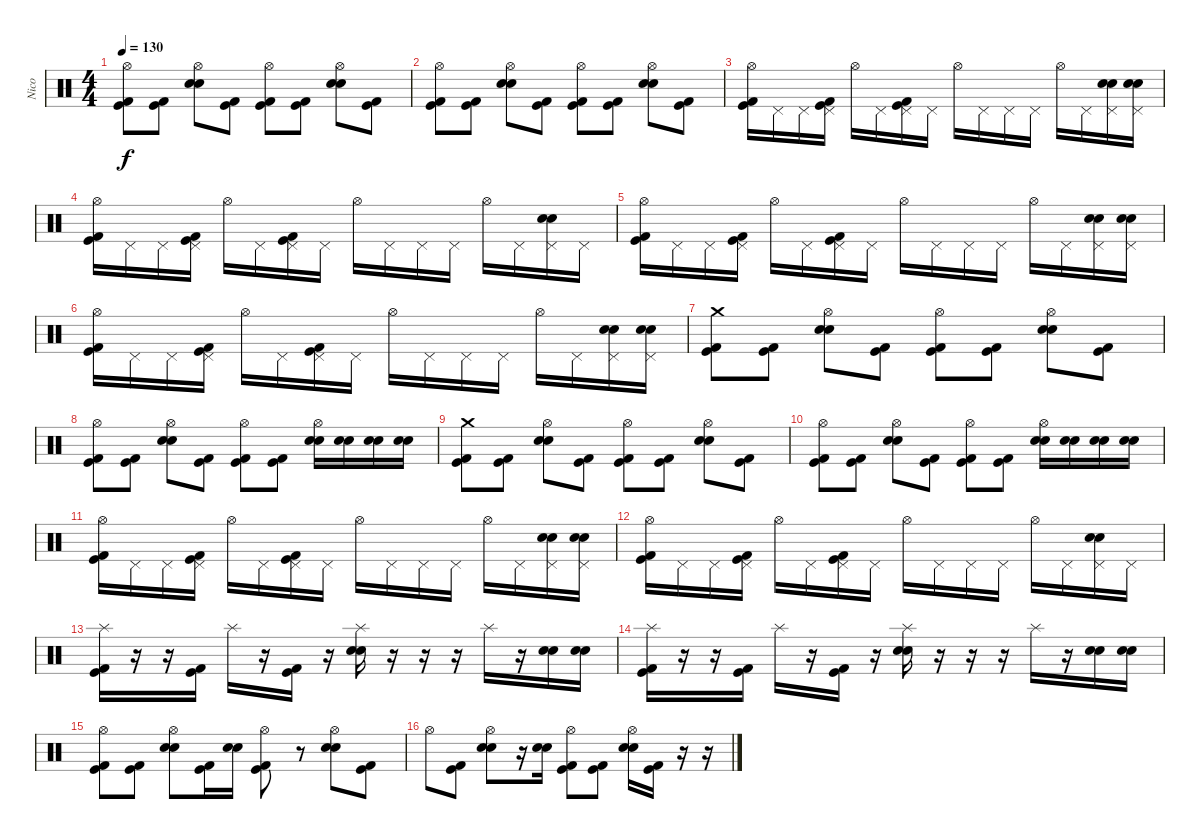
\track ("Nico" "Nico") {instrument percussion}
\staff {score}
\articulation defaults
\ts (4 4)
\tempo 130
\clef neutral
\ks c
("Hi-Hat (open)" "Kick (hit) 2" "Kick (hit)").8{dy f} ("Kick (hit) 2" "Kick (hit)").8 ("Hi-Hat (open)" "Electric Snare (hit)" "Electric Snare (hit)").8 ("Kick (hit)" "Kick (hit) 2").8 ("Hi-Hat (open)" "Kick (hit) 2" "Kick (hit)").8 ("Kick (hit) 2" "Kick (hit)").8 ("Hi-Hat (open)" "Electric Snare (hit)" "Electric Snare (hit)").8 ("Kick (hit)" "Kick (hit) 2").8 |
("Hi-Hat (open)" "Kick (hit) 2" "Kick (hit)").8 ("Kick (hit) 2" "Kick (hit)").8 ("Hi-Hat (open)" "Electric Snare (hit)" "Electric Snare (hit)").8 ("Kick (hit)" "Kick (hit) 2").8 ("Hi-Hat (open)" "Kick (hit) 2" "Kick (hit)").8 ("Kick (hit) 2" "Kick (hit)").8 ("Hi-Hat (open)" "Electric Snare (hit)" "Electric Snare (hit)").8 ("Kick (hit)" "Kick (hit) 2").8 |
("Hi-Hat (open)" "Kick (hit) 2" "Kick (hit)").16 "Pedal Hi-Hat (hit)".16 "Pedal Hi-Hat (hit)".16 ("Pedal Hi-Hat (hit)" "Kick (hit) 2" "Kick (hit)").16 "Hi-Hat (open)".16 "Pedal Hi-Hat (hit)".16 ("Pedal Hi-Hat (hit)" "Kick (hit) 2" "Kick (hit)").16 "Pedal Hi-Hat (hit)".16 "Hi-Hat (open)".16 "Pedal Hi-Hat (hit)".16 "Pedal Hi-Hat (hit)".16 "Pedal Hi-Hat (hit)".16 "Hi-Hat (open)".16 "Pedal Hi-Hat (hit)".16 ("Pedal Hi-Hat (hit)" "Electric Snare (hit)" "Electric Snare (hit)").16 ("Pedal Hi-Hat (hit)" "Electric Snare (hit)" "Electric Snare (hit)").16 |
("Hi-Hat (open)" "Kick (hit) 2" "Kick (hit)").16 "Pedal Hi-Hat (hit)".16 "Pedal Hi-Hat (hit)".16 ("Pedal Hi-Hat (hit)" "Kick (hit) 2" "Kick (hit)").16 "Hi-Hat (open)".16 "Pedal Hi-Hat (hit)".16 ("Pedal Hi-Hat (hit)" "Kick (hit) 2" "Kick (hit)").16 "Pedal Hi-Hat (hit)".16 "Hi-Hat (open)".16 "Pedal Hi-Hat (hit)".16 "Pedal Hi-Hat (hit)".16 "Pedal Hi-Hat (hit)".16 "Hi-Hat (open)".16 "Pedal Hi-Hat (hit)".16 ("Pedal Hi-Hat (hit)" "Electric Snare (hit)" "Electric Snare (hit)").16 "Pedal Hi-Hat (hit)".16 |
("Hi-Hat (open)" "Kick (hit) 2" "Kick (hit)").16 "Pedal Hi-Hat (hit)".16 "Pedal Hi-Hat (hit)".16 ("Pedal Hi-Hat (hit)" "Kick (hit) 2" "Kick (hit)").16 "Hi-Hat (open)".16 "Pedal Hi-Hat (hit)".16 ("Pedal Hi-Hat (hit)" "Kick (hit) 2" "Kick (hit)").16 "Pedal Hi-Hat (hit)".16 "Hi-Hat (open)".16 "Pedal Hi-Hat (hit)".16 "Pedal Hi-Hat (hit)".16 "Pedal Hi-Hat (hit)".16 "Hi-Hat (open)".16 "Pedal Hi-Hat (hit)".16 ("Pedal Hi-Hat (hit)" "Electric Snare (hit)" "Electric Snare (hit)").16 ("Pedal Hi-Hat (hit)" "Electric Snare (hit)" "Electric Snare (hit)").16 |
("Hi-Hat (open)" "Kick (hit) 2" "Kick (hit)").16 "Pedal Hi-Hat (hit)".16 "Pedal Hi-Hat (hit)".16 ("Pedal Hi-Hat (hit)" "Kick (hit) 2" "Kick (hit)").16 "Hi-Hat (open)".16 "Pedal Hi-Hat (hit)".16 ("Pedal Hi-Hat (hit)" "Kick (hit) 2" "Kick (hit)").16 "Pedal Hi-Hat (hit)".16 "Hi-Hat (open)".16 "Pedal Hi-Hat (hit)".16 "Pedal Hi-Hat (hit)".16 "Pedal Hi-Hat (hit)".16 "Hi-Hat (open)".16 "Pedal Hi-Hat (hit)".16 ("Pedal Hi-Hat (hit)" "Electric Snare (hit)" "Electric Snare (hit)").16 ("Pedal Hi-Hat (hit)" "Electric Snare (hit)" "Electric Snare (hit)").16 |
("Crash medium (hit)" "Kick (hit) 2" "Kick (hit)").8 ("Kick (hit) 2" "Kick (hit)").8 ("Hi-Hat (open)" "Electric Snare (hit)" "Electric Snare (hit)").8 ("Kick (hit)" "Kick (hit) 2").8 ("Hi-Hat (open)" "Kick (hit) 2" "Kick (hit)").8 ("Kick (hit) 2" "Kick (hit)").8 ("Hi-Hat (open)" "Electric Snare (hit)" "Electric Snare (hit)").8 ("Kick (hit)" "Kick (hit) 2").8 |
("Hi-Hat (open)" "Kick (hit) 2" "Kick (hit)").8 ("Kick (hit) 2" "Kick (hit)").8 ("Hi-Hat (open)" "Electric Snare (hit)" "Electric Snare (hit)").8 ("Kick (hit)" "Kick (hit) 2").8 ("Hi-Hat (open)" "Kick (hit) 2" "Kick (hit)").8 ("Kick (hit) 2" "Kick (hit)").8 ("Hi-Hat (open)" "Electric Snare (hit)" "Electric Snare (hit)").16 ("Electric Snare (hit)" "Electric Snare (hit)").16 ("Electric Snare (hit)" "Electric Snare (hit)").16 ("Electric Snare (hit)" "Electric Snare (hit)").16 |
("Crash medium (hit)" "Kick (hit) 2" "Kick (hit)").8 ("Kick (hit) 2" "Kick (hit)").8 ("Hi-Hat (open)" "Electric Snare (hit)" "Electric Snare (hit)").8 ("Kick (hit)" "Kick (hit) 2").8 ("Hi-Hat (open)" "Kick (hit) 2" "Kick (hit)").8 ("Kick (hit) 2" "Kick (hit)").8 ("Hi-Hat (open)" "Electric Snare (hit)" "Electric Snare (hit)").8 ("Kick (hit)" "Kick (hit) 2").8 |
("Hi-Hat (open)" "Kick (hit) 2" "Kick (hit)").8 ("Kick (hit) 2" "Kick (hit)").8 ("Hi-Hat (open)" "Electric Snare (hit)" "Electric Snare (hit)").8 ("Kick (hit)" "Kick (hit) 2").8 ("Hi-Hat (open)" "Kick (hit) 2" "Kick (hit)").8 ("Kick (hit) 2" "Kick (hit)").8 ("Hi-Hat (open)" "Electric Snare (hit)" "Electric Snare (hit)").16 ("Electric Snare (hit)" "Electric Snare (hit)").16 ("Electric Snare (hit)" "Electric Snare (hit)").16 ("Electric Snare (hit)" "Electric Snare (hit)").16 |
("Hi-Hat (open)" "Kick (hit) 2" "Kick (hit)").16 "Pedal Hi-Hat (hit)".16 "Pedal Hi-Hat (hit)".16 ("Pedal Hi-Hat (hit)" "Kick (hit) 2" "Kick (hit)").16 "Hi-Hat (open)".16 "Pedal Hi-Hat (hit)".16 ("Pedal Hi-Hat (hit)" "Kick (hit) 2" "Kick (hit)").16 "Pedal Hi-Hat (hit)".16 "Hi-Hat (open)".16 "Pedal Hi-Hat (hit)".16 "Pedal Hi-Hat (hit)".16 "Pedal Hi-Hat (hit)".16 "Hi-Hat (open)".16 "Pedal Hi-Hat (hit)".16 ("Pedal Hi-Hat (hit)" "Electric Snare (hit)" "Electric Snare (hit)").16 ("Pedal Hi-Hat (hit)" "Electric Snare (hit)" "Electric Snare (hit)").16 |
("Hi-Hat (open)" "Kick (hit) 2" "Kick (hit)").16 "Pedal Hi-Hat (hit)".16 "Pedal Hi-Hat (hit)".16 ("Pedal Hi-Hat (hit)" "Kick (hit) 2" "Kick (hit)").16 "Hi-Hat (open)".16 "Pedal Hi-Hat (hit)".16 ("Pedal Hi-Hat (hit)" "Kick (hit) 2" "Kick (hit)").16 "Pedal Hi-Hat (hit)".16 "Hi-Hat (open)".16 "Pedal Hi-Hat (hit)".16 "Pedal Hi-Hat (hit)".16 "Pedal Hi-Hat (hit)".16 "Hi-Hat (open)".16 "Pedal Hi-Hat (hit)".16 ("Pedal Hi-Hat (hit)" "Electric Snare (hit)" "Electric Snare (hit)").16 "Pedal Hi-Hat (hit)".16 |
("Splash (hit)" "Kick (hit) 2" "Kick (hit)").16 r.16 r.16 ("Kick (hit) 2" "Kick (hit)").16 "Splash (hit)".16 r.16 ("Kick (hit) 2" "Kick (hit)").16 r.16 ("Splash (hit)" "Electric Snare (hit)" "Electric Snare (hit)").16 r.16 r.16 r.16 "Splash (hit)".16 r.16 ("Electric Snare (hit)" "Electric Snare (hit)").16 ("Electric Snare (hit)" "Electric Snare (hit)").16 |
("Splash (hit)" "Kick (hit) 2" "Kick (hit)").16 r.16 r.16 ("Kick (hit) 2" "Kick (hit)").16 "Splash (hit)".16 r.16 ("Kick (hit) 2" "Kick (hit)").16 r.16 ("Splash (hit)" "Electric Snare (hit)" "Electric Snare (hit)").16 r.16 r.16 r.16 "Splash (hit)".16 r.16 ("Electric Snare (hit)" "Electric Snare (hit)").16 ("Electric Snare (hit)" "Electric Snare (hit)").16 |
("Hi-Hat (open)" "Kick (hit) 2" "Kick (hit)").8 ("Kick (hit) 2" "Kick (hit)").8 ("Hi-Hat (open)" "Electric Snare (hit)" "Electric Snare (hit)").8 ("Kick (hit) 2" "Kick (hit)").16 ("Electric Snare (hit)" "Electric Snare (hit)").16 ("Hi-Hat (open)" "Kick (hit) 2" "Kick (hit)").8 r.8 ("Hi-Hat (open)" "Electric Snare (hit)" "Electric Snare (hit)").8 ("Kick (hit)" "Kick (hit) 2").8 |
"Hi-Hat (open)".8 ("Kick (hit) 2" "Kick (hit)").8 ("Hi-Hat (open)" "Electric Snare (hit)" "Electric Snare (hit)").8 r.16 ("Electric Snare (hit)" "Electric Snare (hit)").16 ("Hi-Hat (open)" "Kick (hit) 2" "Kick (hit)").8 ("Kick (hit) 2" "Kick (hit)").8 ("Hi-Hat (open)" "Electric Snare (hit)" "Electric Snare (hit)").16 ("Kick (hit) 2" "Kick (hit)").16 r.16 r.16
